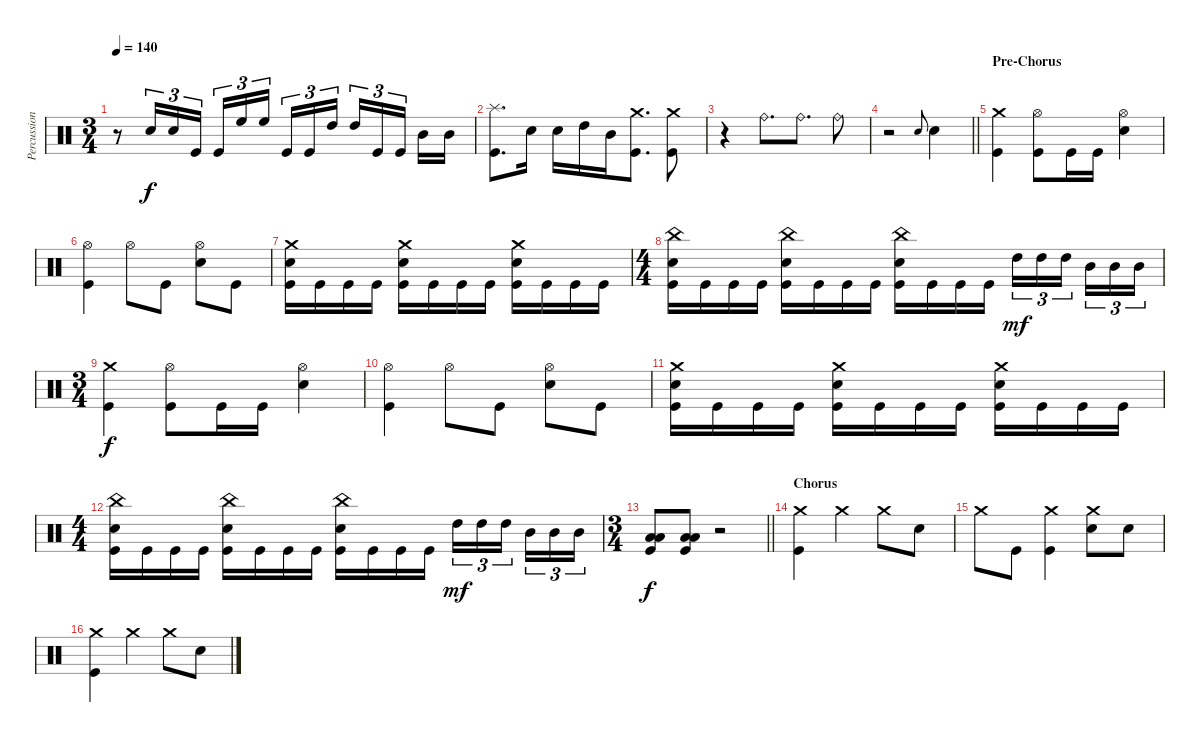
\track ("Percussion" "Percussion") {instrument percussion}
\staff {score}
\articulation defaults
\ts (3 4)
\tempo 140
\clef neutral
\ks c
r.8{dy f} "Electric Snare (hit)".16{tu (3 2)} "Electric Snare (hit)".16{tu (3 2)} "Kick (hit)".16{tu (3 2)} "Kick (hit)".16{tu (3 2)} "High Floor Tom (hit)".16{tu (3 2)} "High Floor Tom (hit)".16{tu (3 2) beam splitsecondary} "Kick (hit)".16{tu (3 2)} "Kick (hit)".16{tu (3 2)} "High Tom (hit)".16{tu (3 2)} "High Tom (hit)".16{tu (3 2)} "Kick (hit)".16{tu (3 2)} "Kick (hit)".16{tu (3 2) beam splitsecondary} "Mid Tom (hit)".16 "Mid Tom (hit)".16 |
("Splash (hit)" "Kick (hit)").8{d} "Electric Snare (hit)".16 "Electric Snare (hit)".16 "High Tom (hit)".16 "Mid Tom (hit)".16 ("Crash medium (hit)" "Kick (hit)").8{d} ("Crash medium (hit)" "Kick (hit)").8 |
r.4 "Ride (bell)".8{d} "Ride (bell)".8{d} "Ride (bell)".8 |
\barLineRight lightlight
r.2 "Electric Snare (hit)".8{gr onbeat} "Electric Snare (hit)".4 |
\section ("" "Pre-Chorus")
("Crash medium (hit)" "Kick (hit)").4 ("Hi-Hat (open)" "Kick (hit)").8 "Kick (hit)".16 "Kick (hit)".16 ("Hi-Hat (open)" "Electric Snare (hit)").4 |
("Hi-Hat (open)" "Kick (hit)").4 "Hi-Hat (open)".8 "Kick (hit)".8 ("Hi-Hat (open)" "Electric Snare (hit)").8 "Kick (hit)".8 |
("Crash medium (hit)" "Electric Snare (hit)" "Kick (hit)").16 "Kick (hit)".16 "Kick (hit)".16 "Kick (hit)".16 ("Crash medium (hit)" "Electric Snare (hit)" "Kick (hit)").16 "Kick (hit)".16 "Kick (hit)".16 "Kick (hit)".16 ("Crash medium (hit)" "Electric Snare (hit)" "Kick (hit)").16 "Kick (hit)".16 "Kick (hit)".16 "Kick (hit)".16 |
\ts (4 4)
("China (hit)" "Electric Snare (hit)" "Kick (hit)").16 "Kick (hit)".16 "Kick (hit)".16 "Kick (hit)".16 ("China (hit)" "Electric Snare (hit)" "Kick (hit)").16 "Kick (hit)".16 "Kick (hit)".16 "Kick (hit)".16 ("China (hit)" "Electric Snare (hit)" "Kick (hit)").16 "Kick (hit)".16 "Kick (hit)".16 "Kick (hit)".16 "High Tom (hit)".16{tu (3 2) dy mf} "High Tom (hit)".16{tu (3 2)} "High Tom (hit)".16{tu (3 2) beam splitsecondary} "Mid Tom (hit)".16{tu (3 2)} "Mid Tom (hit)".16{tu (3 2)} "Mid Tom (hit)".16{tu (3 2)} |
\ts (3 4)
("Crash medium (hit)" "Kick (hit)").4{dy f} ("Hi-Hat (open)" "Kick (hit)").8 "Kick (hit)".16 "Kick (hit)".16 ("Hi-Hat (open)" "Electric Snare (hit)").4 |
("Hi-Hat (open)" "Kick (hit)").4 "Hi-Hat (open)".8 "Kick (hit)".8 ("Hi-Hat (open)" "Electric Snare (hit)").8 "Kick (hit)".8 |
("Crash medium (hit)" "Electric Snare (hit)" "Kick (hit)").16 "Kick (hit)".16 "Kick (hit)".16 "Kick (hit)".16 ("Crash medium (hit)" "Electric Snare (hit)" "Kick (hit)").16 "Kick (hit)".16 "Kick (hit)".16 "Kick (hit)".16 ("Crash medium (hit)" "Electric Snare (hit)" "Kick (hit)").16 "Kick (hit)".16 "Kick (hit)".16 "Kick (hit)".16 |
\ts (4 4)
("China (hit)" "Electric Snare (hit)" "Kick (hit)").16 "Kick (hit)".16 "Kick (hit)".16 "Kick (hit)".16 ("China (hit)" "Electric Snare (hit)" "Kick (hit)").16 "Kick (hit)".16 "Kick (hit)".16 "Kick (hit)".16 ("China (hit)" "Electric Snare (hit)" "Kick (hit)").16 "Kick (hit)".16 "Kick (hit)".16 "Kick (hit)".16 "High Tom (hit)".16{tu (3 2) dy mf} "High Tom (hit)".16{tu (3 2)} "High Tom (hit)".16{tu (3 2) beam splitsecondary} "Mid Tom (hit)".16{tu (3 2)} "Mid Tom (hit)".16{tu (3 2)} "Mid Tom (hit)".16{tu (3 2)} |
\ts (3 4)
\barLineRight lightlight
("Low Tom (hit)" "Low Floor Tom (hit)" "Kick (hit)").8{dy f} ("Low Tom (hit)" "Low Floor Tom (hit)" "Kick (hit)").8 r.2 |
\section ("" "Chorus")
("Crash medium (hit)" "Kick (hit)").4 "Crash medium (hit)".4 "Crash medium (hit)".8 "Electric Snare (hit)".8 |
"Crash medium (hit)".8 "Kick (hit)".8 ("Crash medium (hit)" "Kick (hit)").4 ("Crash medium (hit)" "Electric Snare (hit)").8 "Electric Snare (hit)".8 |
("Crash medium (hit)" "Kick (hit)").4 "Crash medium (hit)".4 "Crash medium (hit)".8 "Electric Snare (hit)".8
